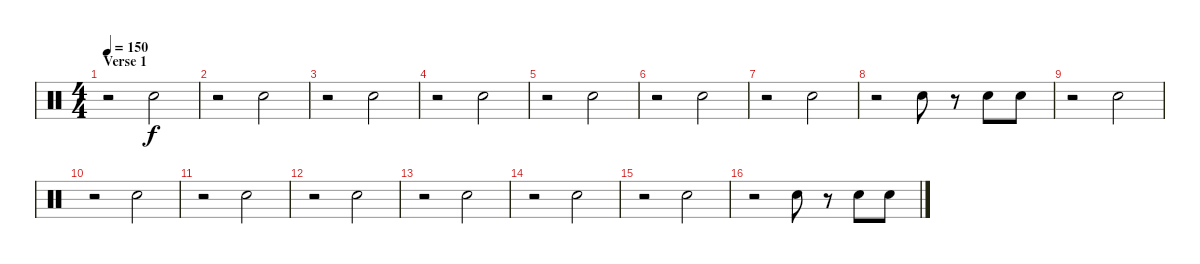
\track "" {instrument percussion}
\staff {score}
\articulation defaults
\ts (4 4)
\section ("" "Verse 1")
\tempo 150
\clef neutral
\ks c
r.2{dy f} "Electric Snare (hit)".2 |
r.2 "Electric Snare (hit)".2 |
r.2 "Electric Snare (hit)".2 |
r.2 "Electric Snare (hit)".2 |
r.2 "Electric Snare (hit)".2 |
r.2 "Electric Snare (hit)".2 |
r.2 "Electric Snare (hit)".2 |
r.2 "Electric Snare (hit)".8 r.8 "Electric Snare (hit)".8 "Electric Snare (hit)".8 |
r.2 "Electric Snare (hit)".2 |
r.2 "Electric Snare (hit)".2 |
r.2 "Electric Snare (hit)".2 |
r.2 "Electric Snare (hit)".2 |
r.2 "Electric Snare (hit)".2 |
r.2 "Electric Snare (hit)".2 |
r.2 "Electric Snare (hit)".2 |
r.2 "Electric Snare (hit)".8 r.8 "Electric Snare (hit)".8 "Electric Snare (hit)".8
